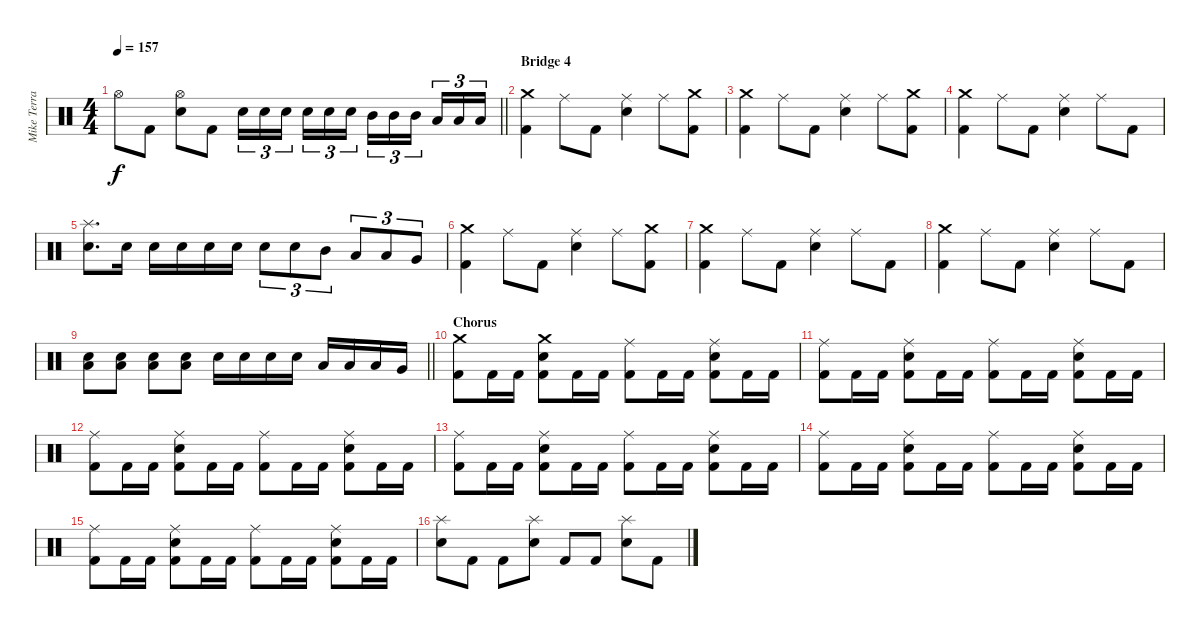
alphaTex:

\track ("Mike Terrana" "Mike Terra") {instrument percussion}
\staff {score}
\articulation defaults
\ts (4 4)
\tempo 157
\clef neutral
\barLineRight lightlight
\ks c "Hi-Hat (open)".8{dy f} "Kick (hit) 2".8
("Hi-Hat (open)" "Snare (hit) 2").8 "Kick (hit) 2".8 "Snare (hit) 2".16{tu (3 2)} "Snare (hit) 2".16{tu (3 2)} "Snare (hit) 2".16{tu (3 2) beam splitsecondary} "Snare (hit) 2".16{tu (3 2)} "Snare (hit) 2".16{tu (3 2)} "Snare (hit) 2".16{tu (3 2)} "Mid Tom (hit)".16{tu (3 2)} "Mid Tom (hit)".16{tu (3 2)} "Mid Tom (hit)".16{tu (3 2) beam splitsecondary} "Low Tom (hit)".16{tu (3 2)} "Low Tom (hit)".16{tu (3 2)} "Low Tom (hit)".16{tu (3 2)} |
\section ("" "Bridge 4")
("Crash medium (hit)" "Kick (hit) 2").4 "Ride (middle)".8 "Kick (hit) 2".8 ("Ride (middle)" "Snare (hit) 2").4 "Ride (middle)".8 ("Crash medium (hit)" "Kick (hit) 2").8 |
("Crash medium (hit)" "Kick (hit) 2").4 "Ride (middle)".8 "Kick (hit) 2".8 ("Ride (middle)" "Snare (hit) 2").4 "Ride (middle)".8 ("Crash medium (hit)" "Kick (hit) 2").8 |
("Crash medium (hit)" "Kick (hit) 2").4 "Ride (middle)".8 "Kick (hit) 2".8 ("Ride (middle)" "Snare (hit) 2").4 "Ride (middle)".8 "Kick (hit) 2".8 |
("Splash (hit)" "Snare (hit) 2").8{d} "Snare (hit) 2".16 "Snare (hit) 2".16 "Snare (hit) 2".16 "Snare (hit) 2".16 "Snare (hit) 2".16 "Snare (hit) 2".8{tu (3 2)} "Snare (hit) 2".8{tu (3 2)} "Mid Tom (hit)".8{tu (3 2)} "Low Tom (hit)".8{tu (3 2)} "Low Tom (hit)".8{tu (3 2)} "Very Low Tom (hit)".8{tu (3 2)} |
("Crash medium (hit)" "Kick (hit) 2").4 "Ride (middle)".8 "Kick (hit) 2".8 ("Ride (middle)" "Snare (hit) 2").4 "Ride (middle)".8 ("Crash medium (hit)" "Kick (hit) 2").8 |
("Crash medium (hit)" "Kick (hit) 2").4 "Ride (middle)".8 "Kick (hit) 2".8 ("Ride (middle)" "Snare (hit) 2").4 "Ride (middle)".8 "Kick (hit) 2".8 |
("Crash medium (hit)" "Kick (hit) 2").4 "Ride (middle)".8 "Kick (hit) 2".8 ("Ride (middle)" "Snare (hit) 2").4 "Ride (middle)".8 "Kick (hit) 2".8 |
\barLineRight lightlight
("Snare (hit) 2" "Low Tom (hit)").8 ("Snare (hit) 2" "Low Tom (hit)").8 ("Snare (hit) 2" "Low Tom (hit)").8 ("Snare (hit) 2" "Low Tom (hit)").8 "Snare (hit) 2".16 "Snare (hit) 2".16 "Snare (hit) 2".16 "Snare (hit) 2".16 "Low Tom (hit)".16 "Low Tom (hit)".16 "Low Tom (hit)".16 "Very Low Tom (hit)".16 |
\section ("" "Chorus")
("Crash medium (hit)" "Kick (hit) 2").8 "Kick (hit) 2".16 "Kick (hit) 2".16 ("Crash medium (hit)" "Snare (hit) 2" "Kick (hit) 2").8 "Kick (hit) 2".16 "Kick (hit) 2".16 ("Ride (middle)" "Kick (hit) 2").8 "Kick (hit) 2".16 "Kick (hit) 2".16 ("Ride (middle)" "Snare (hit) 2" "Kick (hit) 2").8 "Kick (hit) 2".16 "Kick (hit) 2".16 |
("Ride (middle)" "Kick (hit) 2").8 "Kick (hit) 2".16 "Kick (hit) 2".16 ("Ride (middle)" "Snare (hit) 2" "Kick (hit) 2").8 "Kick (hit) 2".16 "Kick (hit) 2".16 ("Ride (middle)" "Kick (hit) 2").8 "Kick (hit) 2".16 "Kick (hit) 2".16 ("Ride (middle)" "Snare (hit) 2" "Kick (hit) 2").8 "Kick (hit) 2".16 "Kick (hit) 2".16 |
("Ride (middle)" "Kick (hit) 2").8 "Kick (hit) 2".16 "Kick (hit) 2".16 ("Ride (middle)" "Snare (hit) 2" "Kick (hit) 2").8 "Kick (hit) 2".16 "Kick (hit) 2".16 ("Ride (middle)" "Kick (hit) 2").8 "Kick (hit) 2".16 "Kick (hit) 2".16 ("Ride (middle)" "Snare (hit) 2" "Kick (hit) 2").8 "Kick (hit) 2".16 "Kick (hit) 2".16 |
("Ride (middle)" "Kick (hit) 2").8 "Kick (hit) 2".16 "Kick (hit) 2".16 ("Ride (middle)" "Snare (hit) 2" "Kick (hit) 2").8 "Kick (hit) 2".16 "Kick (hit) 2".16 ("Ride (middle)" "Kick (hit) 2").8 "Kick (hit) 2".16 "Kick (hit) 2".16 ("Ride (middle)" "Snare (hit) 2" "Kick (hit) 2").8 "Kick (hit) 2".16 "Kick (hit) 2".16 |
("Ride (middle)" "Kick (hit) 2").8 "Kick (hit) 2".16 "Kick (hit) 2".16 ("Ride (middle)" "Snare (hit) 2" "Kick (hit) 2").8 "Kick (hit) 2".16 "Kick (hit) 2".16 ("Ride (middle)" "Kick (hit) 2").8 "Kick (hit) 2".16 "Kick (hit) 2".16 ("Ride (middle)" "Snare (hit) 2" "Kick (hit) 2").8 "Kick (hit) 2".16 "Kick (hit) 2".16 |
("Ride (middle)" "Kick (hit) 2").8 "Kick (hit) 2".16 "Kick (hit) 2".16 ("Ride (middle)" "Snare (hit) 2" "Kick (hit) 2").8 "Kick (hit) 2".16 "Kick (hit) 2".16 ("Ride (middle)" "Kick (hit) 2").8 "Kick (hit) 2".16 "Kick (hit) 2".16 ("Ride (middle)" "Snare (hit) 2" "Kick (hit) 2").8 "Kick (hit) 2".16 "Kick (hit) 2".16 |
("Splash (hit)" "Snare (hit) 2").8 "Kick (hit) 2".8 "Kick (hit) 2".8 ("Splash (hit)" "Snare (hit) 2").8 "Kick (hit) 2".8 "Kick (hit) 2".8 ("Splash (hit)" "Snare (hit) 2").8 "Kick (hit) 2".8
